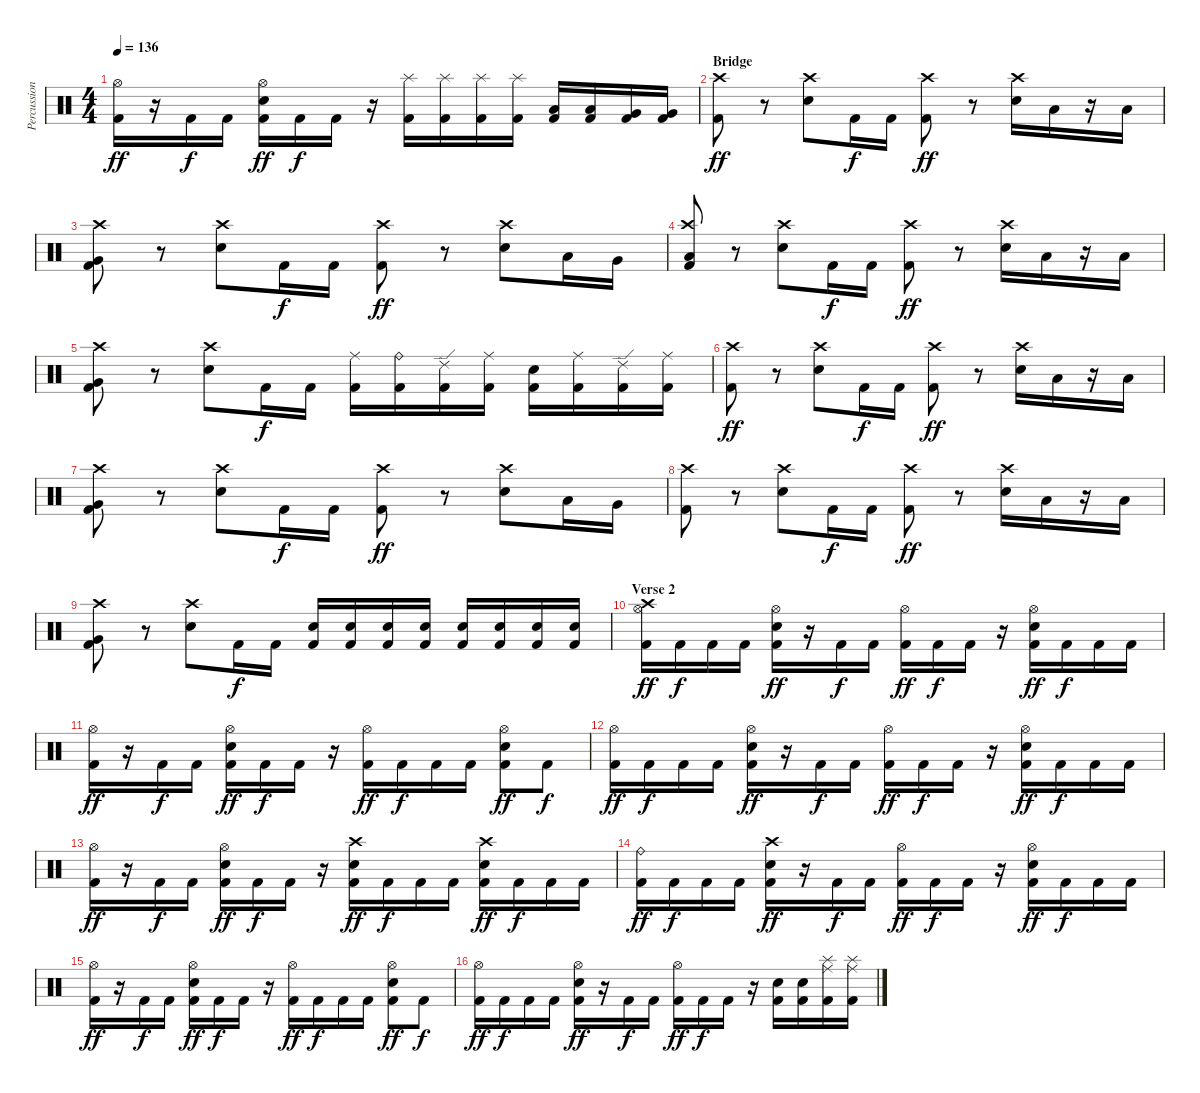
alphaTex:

\track ("Percussions" "Percussion") {instrument percussion}
\staff {score}
\articulation defaults
\ts (4 4)
\tempo 136
\clef neutral
\ks c
("Hi-Hat (open)" "Kick (hit) 2").16{dy ff} r.16 "Kick (hit) 2".16{dy f} "Kick (hit) 2".16 ("Hi-Hat (open)" "Electric Snare (hit)" "Kick (hit) 2").16{dy ff} "Kick (hit) 2".16{dy f} "Kick (hit) 2".16 r.16 ("Splash (hit)" "Kick (hit) 2").16 ("Splash (hit)" "Kick (hit) 2").16 ("Splash (hit)" "Kick (hit) 2").16 ("Splash (hit)" "Kick (hit) 2").16 ("Low Tom (hit)" "Kick (hit) 2").16 ("Low Tom (hit)" "Kick (hit) 2").16 ("Very Low Tom (hit)" "Kick (hit) 2").16 ("Very Low Tom (hit)" "Kick (hit) 2").16 |
\section ("" "Bridge")
("Crash high (hit)" "Kick (hit) 2").8{dy ff} r.8 ("Crash high (hit)" "Electric Snare (hit)").8 "Kick (hit) 2".16{dy f} "Kick (hit) 2".16 ("Crash high (hit)" "Kick (hit) 2").8{dy ff} r.8 ("Crash high (hit)" "Electric Snare (hit)").16 "Low Tom (hit)".16 r.16 "Low Tom (hit)".16 |
("Crash high (hit)" "Very Low Tom (hit)" "Kick (hit) 2").8 r.8 ("Crash high (hit)" "Electric Snare (hit)").8 "Kick (hit) 2".16{dy f} "Kick (hit) 2".16 ("Crash high (hit)" "Kick (hit) 2").8{dy ff} r.8 ("Crash high (hit)" "Electric Snare (hit)").8 "Low Tom (hit)".16 "Very Low Tom (hit)".16 |
("Crash high (hit)" "Low Floor Tom (hit)" "Kick (hit) 2").8 r.8 ("Crash high (hit)" "Electric Snare (hit)").8 "Kick (hit) 2".16{dy f} "Kick (hit) 2".16 ("Crash high (hit)" "Kick (hit) 2").8{dy ff} r.8 ("Crash high (hit)" "Electric Snare (hit)").16 "Low Tom (hit)".16 r.16 "Low Tom (hit)".16 |
("Crash high (hit)" "Very Low Tom (hit)" "Kick (hit) 2").8 r.8 ("Crash high (hit)" "Electric Snare (hit)").8 "Kick (hit) 2".16{dy f} "Kick (hit) 2".16 ("Ride (middle)" "Kick (hit) 2").16 ("Ride (bell)" "Kick (hit) 2").16 ("Ride (edge) 2" "Kick (hit) 2").16 ("Ride (middle)" "Kick (hit) 2").16 ("Electric Snare (hit)" "Kick (hit) 2").16 ("Ride (middle)" "Kick (hit) 2").16 ("Ride (edge) 2" "Kick (hit) 2").16 ("Ride (middle)" "Kick (hit) 2").16 |
("Crash high (hit)" "Kick (hit) 2").8{dy ff} r.8 ("Crash high (hit)" "Electric Snare (hit)").8 "Kick (hit) 2".16{dy f} "Kick (hit) 2".16 ("Crash high (hit)" "Kick (hit) 2").8{dy ff} r.8 ("Crash high (hit)" "Electric Snare (hit)").16 "Low Tom (hit)".16 r.16 "Low Tom (hit)".16 |
("Crash high (hit)" "Very Low Tom (hit)" "Kick (hit) 2").8 r.8 ("Crash high (hit)" "Electric Snare (hit)").8 "Kick (hit) 2".16{dy f} "Kick (hit) 2".16 ("Crash high (hit)" "Kick (hit) 2").8{dy ff} r.8 ("Crash high (hit)" "Electric Snare (hit)").8 "Low Tom (hit)".16 "Very Low Tom (hit)".16 |
("Crash high (hit)" "Kick (hit) 2").8 r.8 ("Crash high (hit)" "Electric Snare (hit)").8 "Kick (hit) 2".16{dy f} "Kick (hit) 2".16 ("Crash high (hit)" "Kick (hit) 2").8{dy ff} r.8 ("Crash high (hit)" "Electric Snare (hit)").16 "Low Tom (hit)".16 r.16 "Low Tom (hit)".16 |
("Crash high (hit)" "Very Low Tom (hit)" "Kick (hit) 2").8 r.8 ("Crash high (hit)" "Electric Snare (hit)").8 "Kick (hit) 2".16{dy f} "Kick (hit) 2".16 ("Electric Snare (hit)" "Kick (hit) 2").16 ("Electric Snare (hit)" "Kick (hit) 2").16 ("Electric Snare (hit)" "Kick (hit) 2").16 ("Electric Snare (hit)" "Kick (hit) 2").16 ("Electric Snare (hit)" "Kick (hit) 2").16 ("Electric Snare (hit)" "Kick (hit) 2").16 ("Electric Snare (hit)" "Kick (hit) 2").16 ("Electric Snare (hit)" "Kick (hit) 2").16 |
\section ("" "Verse 2")
("Crash high (hit)" "Hi-Hat (open)" "Kick (hit) 2").16{dy ff} "Kick (hit) 2".16{dy f} "Kick (hit) 2".16 "Kick (hit) 2".16 ("Hi-Hat (open)" "Electric Snare (hit)" "Kick (hit) 2").16{dy ff} r.16 "Kick (hit) 2".16{dy f} "Kick (hit) 2".16 ("Hi-Hat (open)" "Kick (hit) 2").16{dy ff} "Kick (hit) 2".16{dy f} "Kick (hit) 2".16 r.16 ("Hi-Hat (open)" "Electric Snare (hit)" "Kick (hit) 2").16{dy ff} "Kick (hit) 2".16{dy f} "Kick (hit) 2".16 "Kick (hit) 2".16 |
("Hi-Hat (open)" "Kick (hit) 2").16{dy ff} r.16 "Kick (hit) 2".16{dy f} "Kick (hit) 2".16 ("Hi-Hat (open)" "Electric Snare (hit)" "Kick (hit) 2").16{dy ff} "Kick (hit) 2".16{dy f} "Kick (hit) 2".16 r.16 ("Hi-Hat (open)" "Kick (hit) 2").16{dy ff} "Kick (hit) 2".16{dy f} "Kick (hit) 2".16 "Kick (hit) 2".16 ("Hi-Hat (open)" "Electric Snare (hit)" "Kick (hit) 2").8{dy ff} "Kick (hit) 2".8{dy f} |
("Hi-Hat (open)" "Kick (hit) 2").16{dy ff} "Kick (hit) 2".16{dy f} "Kick (hit) 2".16 "Kick (hit) 2".16 ("Hi-Hat (open)" "Electric Snare (hit)" "Kick (hit) 2").16{dy ff} r.16 "Kick (hit) 2".16{dy f} "Kick (hit) 2".16 ("Hi-Hat (open)" "Kick (hit) 2").16{dy ff} "Kick (hit) 2".16{dy f} "Kick (hit) 2".16 r.16 ("Hi-Hat (open)" "Electric Snare (hit)" "Kick (hit) 2").16{dy ff} "Kick (hit) 2".16{dy f} "Kick (hit) 2".16 "Kick (hit) 2".16 |
("Hi-Hat (open)" "Kick (hit) 2").16{dy ff} r.16 "Kick (hit) 2".16{dy f} "Kick (hit) 2".16 ("Hi-Hat (open)" "Electric Snare (hit)" "Kick (hit) 2").16{dy ff} "Kick (hit) 2".16{dy f} "Kick (hit) 2".16 r.16 ("Crash high (hit)" "Electric Snare (hit)" "Kick (hit) 2").16{dy ff} "Kick (hit) 2".16{dy f} "Kick (hit) 2".16 "Kick (hit) 2".16 ("Crash high (hit)" "Electric Snare (hit)" "Kick (hit) 2").16{dy ff} "Kick (hit) 2".16{dy f} "Kick (hit) 2".16 "Kick (hit) 2".16 |
("Ride (bell)" "Kick (hit) 2").16{dy ff} "Kick (hit) 2".16{dy f} "Kick (hit) 2".16 "Kick (hit) 2".16 ("Crash high (hit)" "Electric Snare (hit)" "Kick (hit) 2").16{dy ff} r.16 "Kick (hit) 2".16{dy f} "Kick (hit) 2".16 ("Hi-Hat (open)" "Kick (hit) 2").16{dy ff} "Kick (hit) 2".16{dy f} "Kick (hit) 2".16 r.16 ("Hi-Hat (open)" "Electric Snare (hit)" "Kick (hit) 2").16{dy ff} "Kick (hit) 2".16{dy f} "Kick (hit) 2".16 "Kick (hit) 2".16 |
("Hi-Hat (open)" "Kick (hit) 2").16{dy ff} r.16 "Kick (hit) 2".16{dy f} "Kick (hit) 2".16 ("Hi-Hat (open)" "Electric Snare (hit)" "Kick (hit) 2").16{dy ff} "Kick (hit) 2".16{dy f} "Kick (hit) 2".16 r.16 ("Hi-Hat (open)" "Kick (hit) 2").16{dy ff} "Kick (hit) 2".16{dy f} "Kick (hit) 2".16 "Kick (hit) 2".16 ("Hi-Hat (open)" "Electric Snare (hit)" "Kick (hit) 2").8{dy ff} "Kick (hit) 2".8{dy f} |
("Hi-Hat (open)" "Kick (hit) 2").16{dy ff} "Kick (hit) 2".16{dy f} "Kick (hit) 2".16 "Kick (hit) 2".16 ("Hi-Hat (open)" "Electric Snare (hit)" "Kick (hit) 2").16{dy ff} r.16 "Kick (hit) 2".16{dy f} "Kick (hit) 2".16 ("Hi-Hat (open)" "Kick (hit) 2").16{dy ff} "Kick (hit) 2".16{dy f} "Kick (hit) 2".16 r.16 ("Electric Snare (hit)" "Kick (hit) 2").16 ("Electric Snare (hit)" "Kick (hit) 2").16 ("Splash (hit)" "Ride (middle)" "Kick (hit) 2").16 ("Splash (hit)" "Ride (middle)" "Kick (hit) 2").16
